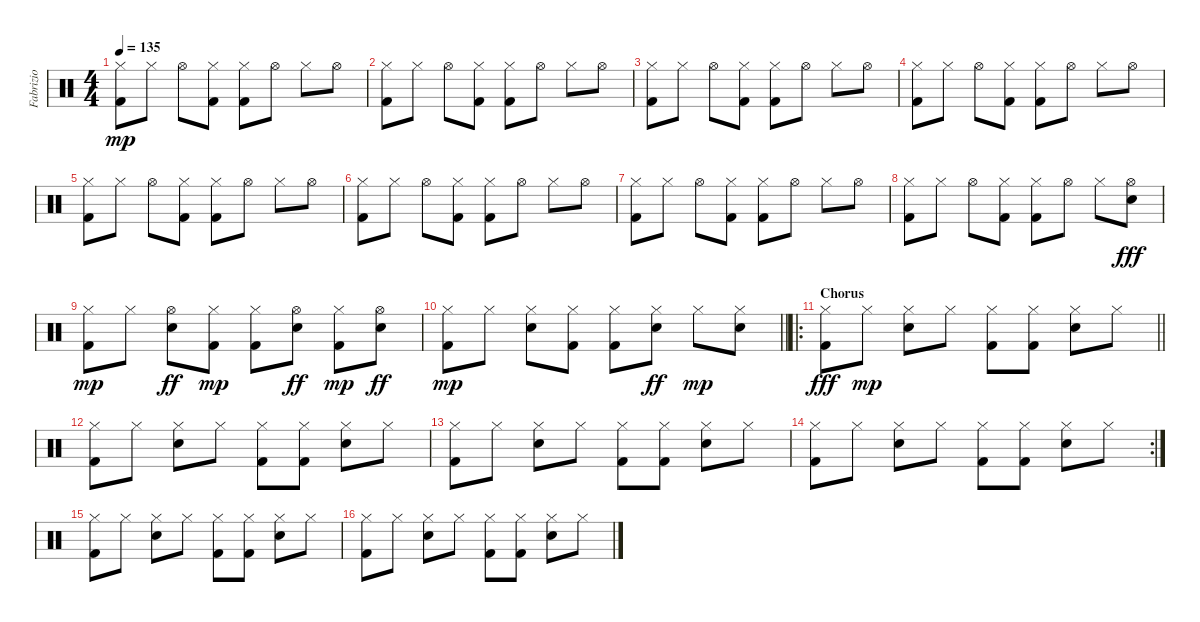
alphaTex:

\track ("Fabrizio" "Fabrizio") {instrument percussion}
\staff {score}
\articulation defaults
\ts (4 4)
\tempo 135
\clef neutral
\ks c
("Hi-Hat (closed)" "Kick (hit) 2").8{dy mp} "Hi-Hat (closed)".8 "Hi-Hat (open)".8 ("Hi-Hat (closed)" "Kick (hit) 2").8 ("Hi-Hat (closed)" "Kick (hit) 2").8 "Hi-Hat (open)".8 "Hi-Hat (closed)".8 "Hi-Hat (open)".8 |
("Hi-Hat (closed)" "Kick (hit) 2").8 "Hi-Hat (closed)".8 "Hi-Hat (open)".8 ("Hi-Hat (closed)" "Kick (hit) 2").8 ("Hi-Hat (closed)" "Kick (hit) 2").8 "Hi-Hat (open)".8 "Hi-Hat (closed)".8 "Hi-Hat (open)".8 |
("Hi-Hat (closed)" "Kick (hit) 2").8 "Hi-Hat (closed)".8 "Hi-Hat (open)".8 ("Hi-Hat (closed)" "Kick (hit) 2").8 ("Hi-Hat (closed)" "Kick (hit) 2").8 "Hi-Hat (open)".8 "Hi-Hat (closed)".8 "Hi-Hat (open)".8 |
("Hi-Hat (closed)" "Kick (hit) 2").8 "Hi-Hat (closed)".8 "Hi-Hat (open)".8 ("Hi-Hat (closed)" "Kick (hit) 2").8 ("Hi-Hat (closed)" "Kick (hit) 2").8 "Hi-Hat (open)".8 "Hi-Hat (closed)".8 "Hi-Hat (open)".8 |
("Hi-Hat (closed)" "Kick (hit) 2").8 "Hi-Hat (closed)".8 "Hi-Hat (open)".8 ("Hi-Hat (closed)" "Kick (hit) 2").8 ("Hi-Hat (closed)" "Kick (hit) 2").8 "Hi-Hat (open)".8 "Hi-Hat (closed)".8 "Hi-Hat (open)".8 |
("Hi-Hat (closed)" "Kick (hit) 2").8 "Hi-Hat (closed)".8 "Hi-Hat (open)".8 ("Hi-Hat (closed)" "Kick (hit) 2").8 ("Hi-Hat (closed)" "Kick (hit) 2").8 "Hi-Hat (open)".8 "Hi-Hat (closed)".8 "Hi-Hat (open)".8 |
("Hi-Hat (closed)" "Kick (hit) 2").8 "Hi-Hat (closed)".8 "Hi-Hat (open)".8 ("Hi-Hat (closed)" "Kick (hit) 2").8 ("Hi-Hat (closed)" "Kick (hit) 2").8 "Hi-Hat (open)".8 "Hi-Hat (closed)".8 "Hi-Hat (open)".8 |
("Hi-Hat (closed)" "Kick (hit) 2").8 "Hi-Hat (closed)".8 "Hi-Hat (open)".8 ("Hi-Hat (closed)" "Kick (hit) 2").8 ("Hi-Hat (closed)" "Kick (hit) 2").8 "Hi-Hat (open)".8 "Hi-Hat (closed)".8 ("Hi-Hat (open)" "Electric Snare (hit)").8{dy fff} |
("Hi-Hat (closed)" "Kick (hit) 2").8{dy mp} "Hi-Hat (closed)".8 ("Hi-Hat (open)" "Electric Snare (hit)").8{dy ff} ("Hi-Hat (closed)" "Kick (hit) 2").8{dy mp} ("Hi-Hat (closed)" "Kick (hit) 2").8 ("Hi-Hat (open)" "Electric Snare (hit)").8{dy ff} ("Hi-Hat (closed)" "Kick (hit) 2").8{dy mp} ("Hi-Hat (open)" "Electric Snare (hit)").8{dy ff} |
\barLineRight lightlight
("Hi-Hat (closed)" "Kick (hit) 2").8{dy mp} "Hi-Hat (closed)".8 ("Hi-Hat (closed)" "Electric Snare (hit)").8 ("Hi-Hat (closed)" "Kick (hit) 2").8 ("Hi-Hat (closed)" "Kick (hit) 2").8 ("Hi-Hat (closed)" "Electric Snare (hit)").8{dy ff} "Hi-Hat (closed)".8{dy mp} ("Hi-Hat (closed)" "Electric Snare (hit)").8 |
\ro
\section ("" "Chorus")
\barLineRight lightlight
("Hi-Hat (closed)" "Kick (hit) 2").8{dy fff} "Hi-Hat (closed)".8{dy mp} ("Hi-Hat (closed)" "Electric Snare (hit)").8 "Hi-Hat (closed)".8 ("Hi-Hat (closed)" "Kick (hit) 2").8 ("Hi-Hat (closed)" "Kick (hit) 2").8 ("Hi-Hat (closed)" "Electric Snare (hit)").8 "Hi-Hat (closed)".8 |
("Hi-Hat (closed)" "Kick (hit) 2").8 "Hi-Hat (closed)".8 ("Hi-Hat (closed)" "Electric Snare (hit)").8 "Hi-Hat (closed)".8 ("Hi-Hat (closed)" "Kick (hit) 2").8 ("Hi-Hat (closed)" "Kick (hit) 2").8 ("Hi-Hat (closed)" "Electric Snare (hit)").8 "Hi-Hat (closed)".8 |
("Hi-Hat (closed)" "Kick (hit) 2").8 "Hi-Hat (closed)".8 ("Hi-Hat (closed)" "Electric Snare (hit)").8 "Hi-Hat (closed)".8 ("Hi-Hat (closed)" "Kick (hit) 2").8 ("Hi-Hat (closed)" "Kick (hit) 2").8 ("Hi-Hat (closed)" "Electric Snare (hit)").8 "Hi-Hat (closed)".8 |
\rc 2
("Hi-Hat (closed)" "Kick (hit) 2").8 "Hi-Hat (closed)".8 ("Hi-Hat (closed)" "Electric Snare (hit)").8 "Hi-Hat (closed)".8 ("Hi-Hat (closed)" "Kick (hit) 2").8 ("Hi-Hat (closed)" "Kick (hit) 2").8 ("Hi-Hat (closed)" "Electric Snare (hit)").8 "Hi-Hat (closed)".8 |
("Hi-Hat (closed)" "Kick (hit) 2").8 "Hi-Hat (closed)".8 ("Hi-Hat (closed)" "Electric Snare (hit)").8 "Hi-Hat (closed)".8 ("Hi-Hat (closed)" "Kick (hit) 2").8 ("Hi-Hat (closed)" "Kick (hit) 2").8 ("Hi-Hat (closed)" "Electric Snare (hit)").8 "Hi-Hat (closed)".8 |
("Hi-Hat (closed)" "Kick (hit) 2").8 "Hi-Hat (closed)".8 ("Hi-Hat (closed)" "Electric Snare (hit)").8 "Hi-Hat (closed)".8 ("Hi-Hat (closed)" "Kick (hit) 2").8 ("Hi-Hat (closed)" "Kick (hit) 2").8 ("Hi-Hat (closed)" "Electric Snare (hit)").8 "Hi-Hat (closed)".8
